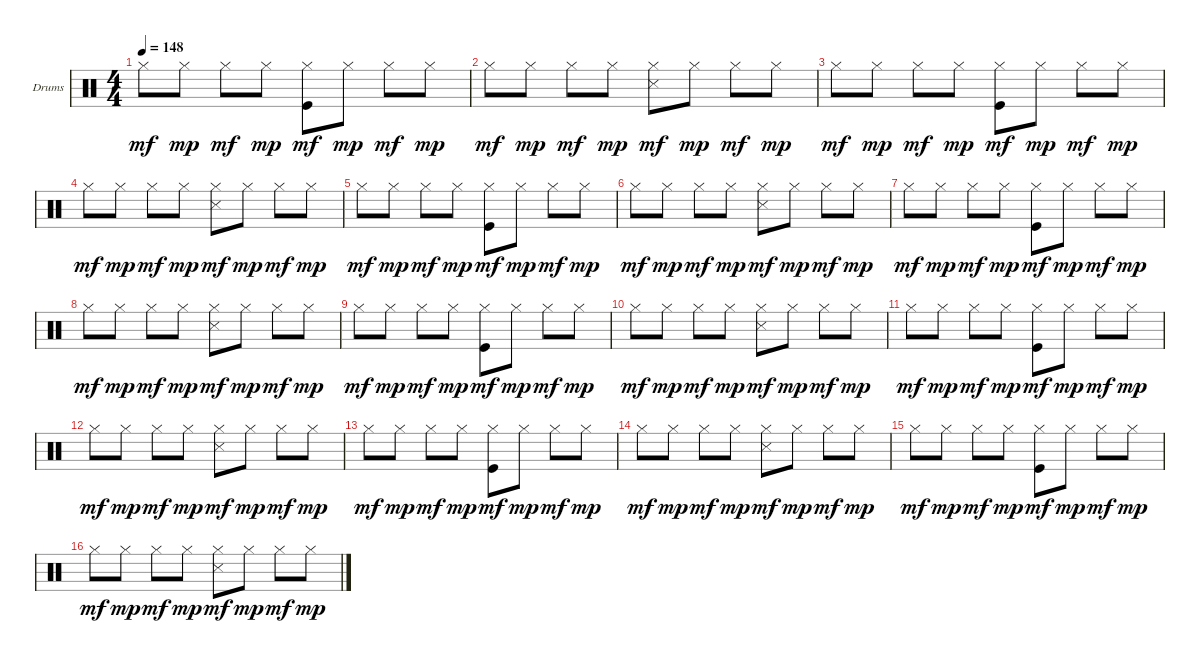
\defaultSystemsLayout 4
\bracketExtendMode groupsimilarinstruments
\firstSystemTrackNameOrientation horizontal
\otherSystemsTrackNameOrientation horizontal
\track ("Drumkit" "Drums") {instrument percussion}
\staff {score}
\articulation defaults
\ts (4 4)
\tempo 148
\clef neutral
\scale
0.333333
\ks c "Hi-Hat (closed)".8{dy mf} "Hi-Hat (closed)".8{dy mp} "Hi-Hat (closed)".8{dy mf} "Hi-Hat (closed)".8{dy mp}
("Hi-Hat (closed)" "Kick (hit)").8{dy mf} "Hi-Hat (closed)".8{dy mp} "Hi-Hat (closed)".8{dy mf} "Hi-Hat (closed)".8{dy mp} |
\scale
0.333333 "Hi-Hat (closed)".8{dy mf} "Hi-Hat (closed)".8{dy mp} "Hi-Hat (closed)".8{dy mf} "Hi-Hat (closed)".8{dy mp} ("Hi-Hat (closed)" "Snare (side stick) 3").8{dy mf} "Hi-Hat (closed)".8{dy mp} "Hi-Hat (closed)".8{dy mf} "Hi-Hat (closed)".8{dy mp} |
\scale
0.333333 "Hi-Hat (closed)".8{dy mf} "Hi-Hat (closed)".8{dy mp} "Hi-Hat (closed)".8{dy mf} "Hi-Hat (closed)".8{dy mp} ("Hi-Hat (closed)" "Kick (hit)").8{dy mf} "Hi-Hat (closed)".8{dy mp} "Hi-Hat (closed)".8{dy mf} "Hi-Hat (closed)".8{dy mp} |
\scale
0.333333 "Hi-Hat (closed)".8{dy mf} "Hi-Hat (closed)".8{dy mp} "Hi-Hat (closed)".8{dy mf} "Hi-Hat (closed)".8{dy mp} ("Hi-Hat (closed)" "Snare (side stick) 3").8{dy mf} "Hi-Hat (closed)".8{dy mp} "Hi-Hat (closed)".8{dy mf} "Hi-Hat (closed)".8{dy mp} |
\scale
0.333333 "Hi-Hat (closed)".8{dy mf} "Hi-Hat (closed)".8{dy mp} "Hi-Hat (closed)".8{dy mf} "Hi-Hat (closed)".8{dy mp} ("Hi-Hat (closed)" "Kick (hit)").8{dy mf} "Hi-Hat (closed)".8{dy mp} "Hi-Hat (closed)".8{dy mf} "Hi-Hat (closed)".8{dy mp} |
\scale
0.333333 "Hi-Hat (closed)".8{dy mf} "Hi-Hat (closed)".8{dy mp} "Hi-Hat (closed)".8{dy mf} "Hi-Hat (closed)".8{dy mp} ("Hi-Hat (closed)" "Snare (side stick) 3").8{dy mf} "Hi-Hat (closed)".8{dy mp} "Hi-Hat (closed)".8{dy mf} "Hi-Hat (closed)".8{dy mp} |
\scale
0.333333 "Hi-Hat (closed)".8{dy mf} "Hi-Hat (closed)".8{dy mp} "Hi-Hat (closed)".8{dy mf} "Hi-Hat (closed)".8{dy mp} ("Hi-Hat (closed)" "Kick (hit)").8{dy mf} "Hi-Hat (closed)".8{dy mp} "Hi-Hat (closed)".8{dy mf} "Hi-Hat (closed)".8{dy mp} |
\scale
0.333333 "Hi-Hat (closed)".8{dy mf} "Hi-Hat (closed)".8{dy mp} "Hi-Hat (closed)".8{dy mf} "Hi-Hat (closed)".8{dy mp} ("Hi-Hat (closed)" "Snare (side stick) 3").8{dy mf} "Hi-Hat (closed)".8{dy mp} "Hi-Hat (closed)".8{dy mf} "Hi-Hat (closed)".8{dy mp} |
\scale
0.333333 "Hi-Hat (closed)".8{dy mf} "Hi-Hat (closed)".8{dy mp} "Hi-Hat (closed)".8{dy mf} "Hi-Hat (closed)".8{dy mp} ("Hi-Hat (closed)" "Kick (hit)").8{dy mf} "Hi-Hat (closed)".8{dy mp} "Hi-Hat (closed)".8{dy mf} "Hi-Hat (closed)".8{dy mp} |
\scale
0.333333 "Hi-Hat (closed)".8{dy mf} "Hi-Hat (closed)".8{dy mp} "Hi-Hat (closed)".8{dy mf} "Hi-Hat (closed)".8{dy mp} ("Hi-Hat (closed)" "Snare (side stick) 3").8{dy mf} "Hi-Hat (closed)".8{dy mp} "Hi-Hat (closed)".8{dy mf} "Hi-Hat (closed)".8{dy mp} |
\scale
0.333333 "Hi-Hat (closed)".8{dy mf} "Hi-Hat (closed)".8{dy mp} "Hi-Hat (closed)".8{dy mf} "Hi-Hat (closed)".8{dy mp} ("Hi-Hat (closed)" "Kick (hit)").8{dy mf} "Hi-Hat (closed)".8{dy mp} "Hi-Hat (closed)".8{dy mf} "Hi-Hat (closed)".8{dy mp} |
\scale
0.333333 "Hi-Hat (closed)".8{dy mf} "Hi-Hat (closed)".8{dy mp} "Hi-Hat (closed)".8{dy mf} "Hi-Hat (closed)".8{dy mp} ("Hi-Hat (closed)" "Snare (side stick) 3").8{dy mf} "Hi-Hat (closed)".8{dy mp} "Hi-Hat (closed)".8{dy mf} "Hi-Hat (closed)".8{dy mp} |
\scale
0.333333 "Hi-Hat (closed)".8{dy mf} "Hi-Hat (closed)".8{dy mp} "Hi-Hat (closed)".8{dy mf} "Hi-Hat (closed)".8{dy mp} ("Hi-Hat (closed)" "Kick (hit)").8{dy mf} "Hi-Hat (closed)".8{dy mp} "Hi-Hat (closed)".8{dy mf} "Hi-Hat (closed)".8{dy mp} |
\scale
0.333333 "Hi-Hat (closed)".8{dy mf} "Hi-Hat (closed)".8{dy mp} "Hi-Hat (closed)".8{dy mf} "Hi-Hat (closed)".8{dy mp} ("Hi-Hat (closed)" "Snare (side stick) 3").8{dy mf} "Hi-Hat (closed)".8{dy mp} "Hi-Hat (closed)".8{dy mf} "Hi-Hat (closed)".8{dy mp} |
\scale
0.333333 "Hi-Hat (closed)".8{dy mf} "Hi-Hat (closed)".8{dy mp} "Hi-Hat (closed)".8{dy mf} "Hi-Hat (closed)".8{dy mp} ("Hi-Hat (closed)" "Kick (hit)").8{dy mf} "Hi-Hat (closed)".8{dy mp} "Hi-Hat (closed)".8{dy mf} "Hi-Hat (closed)".8{dy mp} |
\scale
0.333333 "Hi-Hat (closed)".8{dy mf} "Hi-Hat (closed)".8{dy mp} "Hi-Hat (closed)".8{dy mf} "Hi-Hat (closed)".8{dy mp} ("Hi-Hat (closed)" "Snare (side stick) 3").8{dy mf} "Hi-Hat (closed)".8{dy mp} "Hi-Hat (closed)".8{dy mf} "Hi-Hat (closed)".8{dy mp}
